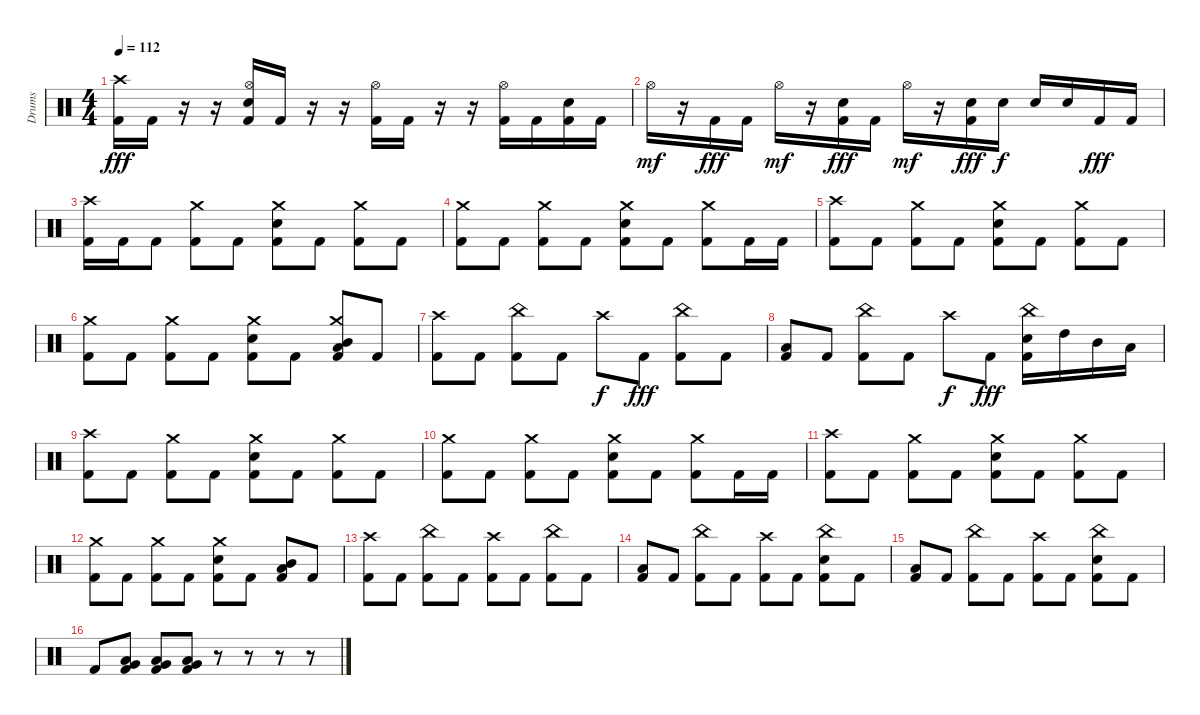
\track ("Drums" "Drums") {instrument percussion}
\staff
\articulation defaults
\ts (4 4)
\tempo 112
\clef neutral
\ks c
("Crash high (hit)" "Kick (hit) 2").16{dy fff} "Kick (hit) 2".16 r.16 r.16 ("Hi-Hat (open)" "Electric Snare (hit)" "Kick (hit) 2").16 "Kick (hit) 2".16 r.16 r.16 ("Hi-Hat (open)" "Kick (hit) 2").16 "Kick (hit) 2".16 r.16 r.16 ("Hi-Hat (open)" "Kick (hit) 2").16 "Kick (hit) 2".16 ("Electric Snare (hit)" "Kick (hit) 2").16 "Kick (hit) 2".16 |
"Hi-Hat (open)".16{dy mf} r.16 "Kick (hit) 2".16{dy fff} "Kick (hit) 2".16 "Hi-Hat (open)".16{dy mf} r.16 ("Electric Snare (hit)" "Kick (hit) 2").16{dy fff} "Kick (hit) 2".16 "Hi-Hat (open)".16{dy mf} r.16 ("Electric Snare (hit)" "Kick (hit) 2").16{dy fff} "Electric Snare (hit)".16{dy f} "Electric Snare (hit)".16 "Electric Snare (hit)".16 "Kick (hit) 2".16{dy fff} "Kick (hit) 2".16 |
("Crash high (hit)" "Kick (hit) 2").16 "Kick (hit) 2".16 "Kick (hit) 2".8 ("Crash medium (hit)" "Kick (hit) 2").8 "Kick (hit) 2".8 ("Crash medium (hit)" "Electric Snare (hit)" "Kick (hit) 2").8 "Kick (hit) 2".8 ("Crash medium (hit)" "Kick (hit) 2").8 "Kick (hit) 2".8 |
("Crash medium (hit)" "Kick (hit) 2").8 "Kick (hit) 2".8 ("Crash medium (hit)" "Kick (hit) 2").8 "Kick (hit) 2".8 ("Crash medium (hit)" "Electric Snare (hit)" "Kick (hit) 2").8 "Kick (hit) 2".8 ("Crash medium (hit)" "Kick (hit) 2").8 "Kick (hit) 2".16 "Kick (hit) 2".16 |
("Crash high (hit)" "Kick (hit) 2").8 "Kick (hit) 2".8 ("Crash medium (hit)" "Kick (hit) 2").8 "Kick (hit) 2".8 ("Crash medium (hit)" "Electric Snare (hit)" "Kick (hit) 2").8 "Kick (hit) 2".8 ("Crash medium (hit)" "Kick (hit) 2").8 "Kick (hit) 2".8 |
("Crash medium (hit)" "Kick (hit) 2").8 "Kick (hit) 2".8 ("Crash medium (hit)" "Kick (hit) 2").8 "Kick (hit) 2".8 ("Crash medium (hit)" "Electric Snare (hit)" "Kick (hit) 2").8 "Kick (hit) 2".8 ("Crash medium (hit)" "Low Tom (hit)" "Mid Tom (hit)" "Kick (hit) 2").8 "Kick (hit) 2".8 |
("Crash high (hit)" "Kick (hit) 2").8 "Kick (hit) 2".8 ("China (hit)" "Kick (hit) 2").8 "Kick (hit) 2".8 "Crash high (hit)".8{dy f} "Kick (hit) 2".8{dy fff} ("China (hit)" "Kick (hit) 2").8 "Kick (hit) 2".8 |
("Low Tom (hit)" "Kick (hit) 2").8 "Kick (hit) 2".8 ("China (hit)" "Kick (hit) 2").8 "Kick (hit) 2".8 "Crash high (hit)".8{dy f} "Kick (hit) 2".8{dy fff} ("China (hit)" "Electric Snare (hit)" "Kick (hit) 2").16 "High Tom (hit)".16 "Mid Tom (hit)".16 "Low Tom (hit)".16 |
("Crash high (hit)" "Kick (hit) 2").8 "Kick (hit) 2".8 ("Crash medium (hit)" "Kick (hit) 2").8 "Kick (hit) 2".8 ("Crash medium (hit)" "Electric Snare (hit)" "Kick (hit) 2").8 "Kick (hit) 2".8 ("Crash medium (hit)" "Kick (hit) 2").8 "Kick (hit) 2".8 |
("Crash medium (hit)" "Kick (hit) 2").8 "Kick (hit) 2".8 ("Crash medium (hit)" "Kick (hit) 2").8 "Kick (hit) 2".8 ("Crash medium (hit)" "Electric Snare (hit)" "Kick (hit) 2").8 "Kick (hit) 2".8 ("Crash medium (hit)" "Kick (hit) 2").8 "Kick (hit) 2".16 "Kick (hit) 2".16 |
("Crash high (hit)" "Kick (hit) 2").8 "Kick (hit) 2".8 ("Crash medium (hit)" "Kick (hit) 2").8 "Kick (hit) 2".8 ("Crash medium (hit)" "Electric Snare (hit)" "Kick (hit) 2").8 "Kick (hit) 2".8 ("Crash medium (hit)" "Kick (hit) 2").8 "Kick (hit) 2".8 |
("Crash medium (hit)" "Kick (hit) 2").8 "Kick (hit) 2".8 ("Crash medium (hit)" "Kick (hit) 2").8 "Kick (hit) 2".8 ("Crash medium (hit)" "Electric Snare (hit)" "Kick (hit) 2").8 "Kick (hit) 2".8 ("Low Tom (hit)" "Mid Tom (hit)" "Kick (hit) 2").8 "Kick (hit) 2".8 |
("Crash high (hit)" "Kick (hit) 2").8 "Kick (hit) 2".8 ("China (hit)" "Kick (hit) 2").8 "Kick (hit) 2".8 ("Crash high (hit)" "Kick (hit) 2").8 "Kick (hit) 2".8 ("China (hit)" "Kick (hit) 2").8 "Kick (hit) 2".8 |
("Low Tom (hit)" "Kick (hit) 2").8 "Kick (hit) 2".8 ("China (hit)" "Kick (hit) 2").8 "Kick (hit) 2".8 ("Crash high (hit)" "Kick (hit) 2").8 "Kick (hit) 2".8 ("China (hit)" "Electric Snare (hit)" "Kick (hit) 2").8 "Kick (hit) 2".8 |
("Low Tom (hit)" "Kick (hit) 2").8 "Kick (hit) 2".8 ("China (hit)" "Kick (hit) 2").8 "Kick (hit) 2".8 ("Crash high (hit)" "Kick (hit) 2").8 "Kick (hit) 2".8 ("China (hit)" "Electric Snare (hit)" "Kick (hit) 2").8 "Kick (hit) 2".8 |
"Kick (hit) 2".8 ("Very Low Tom (hit)" "Low Tom (hit)" "Kick (hit) 2").8 ("Very Low Tom (hit)" "Low Tom (hit)" "Kick (hit) 2").8 ("Very Low Tom (hit)" "Low Tom (hit)" "Kick (hit) 2").8 r.8 r.8 r.8 r.8
